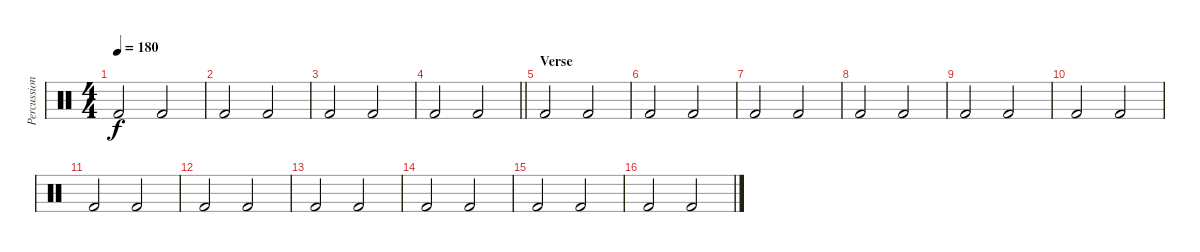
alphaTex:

\track ("Percussion" "Percussion") {instrument percussion}
\staff {score}
\articulation defaults
\ts (4 4)
\tempo 180
\clef neutral
\ks c "Kick (hit) 2".2{dy f} "Kick (hit) 2".2
|
"Kick (hit) 2".2 "Kick (hit) 2".2 |
"Kick (hit) 2".2 "Kick (hit) 2".2 |
\barLineRight lightlight "Kick (hit) 2".2 "Kick (hit) 2".2
|
\section ("" "Verse")
"Kick (hit) 2".2 "Kick (hit) 2".2 |
"Kick (hit) 2".2 "Kick (hit) 2".2 |
"Kick (hit) 2".2 "Kick (hit) 2".2 |
"Kick (hit) 2".2 "Kick (hit) 2".2 |
"Kick (hit) 2".2 "Kick (hit) 2".2 |
"Kick (hit) 2".2 "Kick (hit) 2".2 |
"Kick (hit) 2".2 "Kick (hit) 2".2 |
"Kick (hit) 2".2 "Kick (hit) 2".2 |
"Kick (hit) 2".2 "Kick (hit) 2".2 |
"Kick (hit) 2".2 "Kick (hit) 2".2 |
"Kick (hit) 2".2 "Kick (hit) 2".2 |
"Kick (hit) 2".2 "Kick (hit) 2".2
